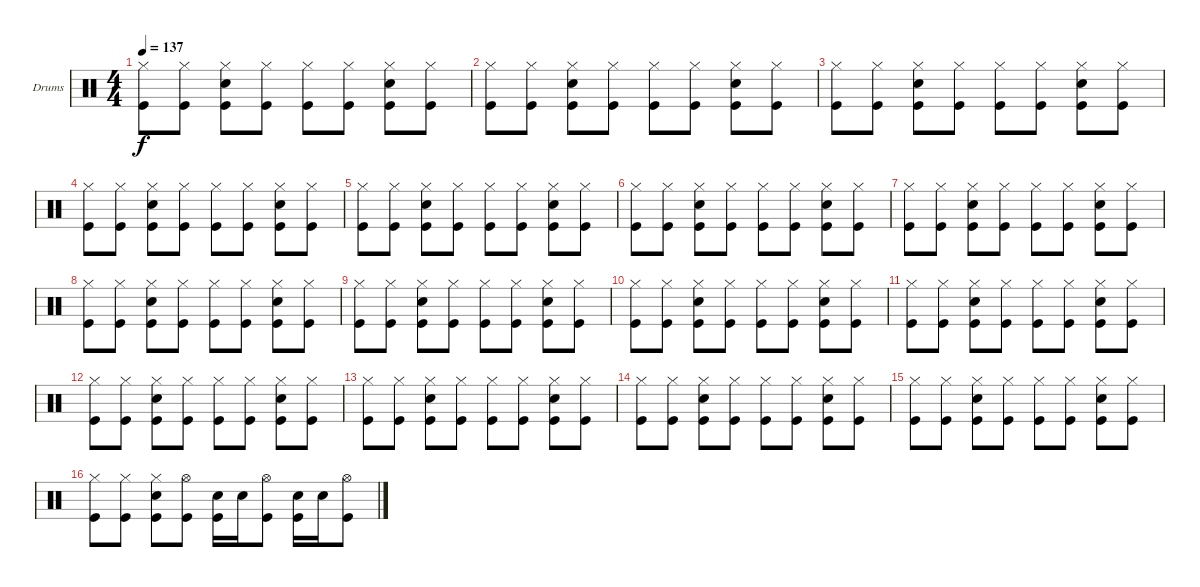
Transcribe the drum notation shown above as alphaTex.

\bracketExtendMode groupsimilarinstruments
\firstSystemTrackNameOrientation horizontal
\otherSystemsTrackNameOrientation horizontal
\track ("Peter Ulrich (Drums)" "Drums") {instrument percussion}
\staff {score}
\articulation defaults
\ts (4 4)
\tempo 137
\clef neutral
\ks c
("Hi-Hat (closed)" "Kick (hit)").8{dy f} ("Hi-Hat (closed)" "Kick (hit)").8 ("Hi-Hat (closed)" "Snare (hit) 2" "Kick (hit)").8 ("Hi-Hat (closed)" "Kick (hit)").8 ("Hi-Hat (closed)" "Kick (hit)").8 ("Hi-Hat (closed)" "Kick (hit)").8 ("Hi-Hat (closed)" "Snare (hit) 2" "Kick (hit)").8 ("Hi-Hat (closed)" "Kick (hit)").8 |
("Hi-Hat (closed)" "Kick (hit)").8 ("Hi-Hat (closed)" "Kick (hit)").8 ("Hi-Hat (closed)" "Snare (hit) 2" "Kick (hit)").8 ("Hi-Hat (closed)" "Kick (hit)").8 ("Hi-Hat (closed)" "Kick (hit)").8 ("Hi-Hat (closed)" "Kick (hit)").8 ("Hi-Hat (closed)" "Snare (hit) 2" "Kick (hit)").8 ("Hi-Hat (closed)" "Kick (hit)").8 |
("Hi-Hat (closed)" "Kick (hit)").8 ("Hi-Hat (closed)" "Kick (hit)").8 ("Hi-Hat (closed)" "Snare (hit) 2" "Kick (hit)").8 ("Hi-Hat (closed)" "Kick (hit)").8 ("Hi-Hat (closed)" "Kick (hit)").8 ("Hi-Hat (closed)" "Kick (hit)").8 ("Hi-Hat (closed)" "Snare (hit) 2" "Kick (hit)").8 ("Hi-Hat (closed)" "Kick (hit)").8 |
("Hi-Hat (closed)" "Kick (hit)").8 ("Hi-Hat (closed)" "Kick (hit)").8 ("Hi-Hat (closed)" "Snare (hit) 2" "Kick (hit)").8 ("Hi-Hat (closed)" "Kick (hit)").8 ("Hi-Hat (closed)" "Kick (hit)").8 ("Hi-Hat (closed)" "Kick (hit)").8 ("Hi-Hat (closed)" "Snare (hit) 2" "Kick (hit)").8 ("Hi-Hat (closed)" "Kick (hit)").8 |
("Hi-Hat (closed)" "Kick (hit)").8 ("Hi-Hat (closed)" "Kick (hit)").8 ("Hi-Hat (closed)" "Snare (hit) 2" "Kick (hit)").8 ("Hi-Hat (closed)" "Kick (hit)").8 ("Hi-Hat (closed)" "Kick (hit)").8 ("Hi-Hat (closed)" "Kick (hit)").8 ("Hi-Hat (closed)" "Snare (hit) 2" "Kick (hit)").8 ("Hi-Hat (closed)" "Kick (hit)").8 |
("Hi-Hat (closed)" "Kick (hit)").8 ("Hi-Hat (closed)" "Kick (hit)").8 ("Hi-Hat (closed)" "Snare (hit) 2" "Kick (hit)").8 ("Hi-Hat (closed)" "Kick (hit)").8 ("Hi-Hat (closed)" "Kick (hit)").8 ("Hi-Hat (closed)" "Kick (hit)").8 ("Hi-Hat (closed)" "Snare (hit) 2" "Kick (hit)").8 ("Hi-Hat (closed)" "Kick (hit)").8 |
("Hi-Hat (closed)" "Kick (hit)").8 ("Hi-Hat (closed)" "Kick (hit)").8 ("Hi-Hat (closed)" "Snare (hit) 2" "Kick (hit)").8 ("Hi-Hat (closed)" "Kick (hit)").8 ("Hi-Hat (closed)" "Kick (hit)").8 ("Hi-Hat (closed)" "Kick (hit)").8 ("Hi-Hat (closed)" "Snare (hit) 2" "Kick (hit)").8 ("Hi-Hat (closed)" "Kick (hit)").8 |
("Hi-Hat (closed)" "Kick (hit)").8 ("Hi-Hat (closed)" "Kick (hit)").8 ("Hi-Hat (closed)" "Snare (hit) 2" "Kick (hit)").8 ("Hi-Hat (closed)" "Kick (hit)").8 ("Hi-Hat (closed)" "Kick (hit)").8 ("Hi-Hat (closed)" "Kick (hit)").8 ("Hi-Hat (closed)" "Snare (hit) 2" "Kick (hit)").8 ("Hi-Hat (closed)" "Kick (hit)").8 |
("Hi-Hat (closed)" "Kick (hit)").8 ("Hi-Hat (closed)" "Kick (hit)").8 ("Hi-Hat (closed)" "Snare (hit) 2" "Kick (hit)").8 ("Hi-Hat (closed)" "Kick (hit)").8 ("Hi-Hat (closed)" "Kick (hit)").8 ("Hi-Hat (closed)" "Kick (hit)").8 ("Hi-Hat (closed)" "Snare (hit) 2" "Kick (hit)").8 ("Hi-Hat (closed)" "Kick (hit)").8 |
("Hi-Hat (closed)" "Kick (hit)").8 ("Hi-Hat (closed)" "Kick (hit)").8 ("Hi-Hat (closed)" "Snare (hit) 2" "Kick (hit)").8 ("Hi-Hat (closed)" "Kick (hit)").8 ("Hi-Hat (closed)" "Kick (hit)").8 ("Hi-Hat (closed)" "Kick (hit)").8 ("Hi-Hat (closed)" "Snare (hit) 2" "Kick (hit)").8 ("Hi-Hat (closed)" "Kick (hit)").8 |
("Hi-Hat (closed)" "Kick (hit)").8 ("Hi-Hat (closed)" "Kick (hit)").8 ("Hi-Hat (closed)" "Snare (hit) 2" "Kick (hit)").8 ("Hi-Hat (closed)" "Kick (hit)").8 ("Hi-Hat (closed)" "Kick (hit)").8 ("Hi-Hat (closed)" "Kick (hit)").8 ("Hi-Hat (closed)" "Snare (hit) 2" "Kick (hit)").8 ("Hi-Hat (closed)" "Kick (hit)").8 |
("Hi-Hat (closed)" "Kick (hit)").8 ("Hi-Hat (closed)" "Kick (hit)").8 ("Hi-Hat (closed)" "Snare (hit) 2" "Kick (hit)").8 ("Hi-Hat (closed)" "Kick (hit)").8 ("Hi-Hat (closed)" "Kick (hit)").8 ("Hi-Hat (closed)" "Kick (hit)").8 ("Hi-Hat (closed)" "Snare (hit) 2" "Kick (hit)").8 ("Hi-Hat (closed)" "Kick (hit)").8 |
("Hi-Hat (closed)" "Kick (hit)").8 ("Hi-Hat (closed)" "Kick (hit)").8 ("Hi-Hat (closed)" "Snare (hit) 2" "Kick (hit)").8 ("Hi-Hat (closed)" "Kick (hit)").8 ("Hi-Hat (closed)" "Kick (hit)").8 ("Hi-Hat (closed)" "Kick (hit)").8 ("Hi-Hat (closed)" "Snare (hit) 2" "Kick (hit)").8 ("Hi-Hat (closed)" "Kick (hit)").8 |
("Hi-Hat (closed)" "Kick (hit)").8 ("Hi-Hat (closed)" "Kick (hit)").8 ("Hi-Hat (closed)" "Snare (hit) 2" "Kick (hit)").8 ("Hi-Hat (closed)" "Kick (hit)").8 ("Hi-Hat (closed)" "Kick (hit)").8 ("Hi-Hat (closed)" "Kick (hit)").8 ("Hi-Hat (closed)" "Snare (hit) 2" "Kick (hit)").8 ("Hi-Hat (closed)" "Kick (hit)").8 |
("Hi-Hat (closed)" "Kick (hit)").8 ("Hi-Hat (closed)" "Kick (hit)").8 ("Hi-Hat (closed)" "Snare (hit) 2" "Kick (hit)").8 ("Hi-Hat (closed)" "Kick (hit)").8 ("Hi-Hat (closed)" "Kick (hit)").8 ("Hi-Hat (closed)" "Kick (hit)").8 ("Hi-Hat (closed)" "Snare (hit) 2" "Kick (hit)").8 ("Hi-Hat (closed)" "Kick (hit)").8 |
("Kick (hit)" "Hi-Hat (closed)").8 ("Kick (hit)" "Hi-Hat (closed)").8 ("Kick (hit)" "Hi-Hat (closed)" "Snare (hit) 2").8 ("Kick (hit)" "Hi-Hat (open)").8 ("Snare (hit) 2" "Kick (hit)").16 "Snare (hit) 2".16 ("Kick (hit)" "Hi-Hat (open)").8 ("Snare (hit) 2" "Kick (hit)").16 "Snare (hit) 2".16 ("Kick (hit)" "Hi-Hat (open)").8
